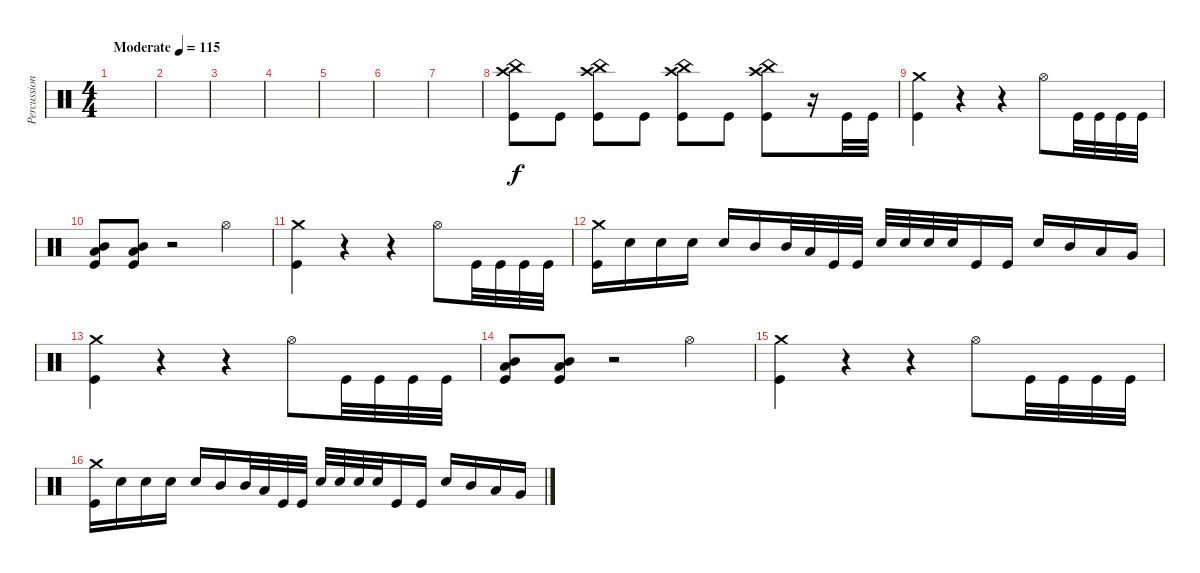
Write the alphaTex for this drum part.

\track ("Percussion" "Percussion") {instrument percussion}
\staff {score}
\articulation defaults
\ts (4 4)
\tempo (115 "Moderate")
\clef neutral
\ks c
|
|
|
|
|
|
|
("Crash high (hit)" "China (hit)" "Kick (hit)").8 "Kick (hit)".8 ("Crash high (hit)" "China (hit)" "Kick (hit)").8 "Kick (hit)".8 ("Crash high (hit)" "China (hit)" "Kick (hit)").8 "Kick (hit)".8 ("Crash high (hit)" "China (hit)" "Kick (hit)").8 r.16 "Kick (hit)".32 "Kick (hit)".32 |
("Crash medium (hit)" "Kick (hit)").4 r.4 r.4 "Hi-Hat (open)".8 "Kick (hit)".32 "Kick (hit)".32 "Kick (hit)".32 "Kick (hit)".32 |
("Low Tom (hit)" "Mid Tom (hit)" "Kick (hit)").8 ("Low Tom (hit)" "Mid Tom (hit)" "Kick (hit)").8 r.2 "Hi-Hat (open)".4 |
("Crash medium (hit)" "Kick (hit)").4 r.4 r.4 "Hi-Hat (open)".8 "Kick (hit)".32 "Kick (hit)".32 "Kick (hit)".32 "Kick (hit)".32 |
("Crash medium (hit)" "Kick (hit)").16 "Electric Snare (hit)".16 "Electric Snare (hit)".16 "Electric Snare (hit)".16 "Electric Snare (hit)".16 "Mid Tom (hit)".16 "Mid Tom (hit)".32 "Low Tom (hit)".32 "Kick (hit)".32 "Kick (hit)".32 "Electric Snare (hit)".32 "Electric Snare (hit)".32 "Electric Snare (hit)".32 "Electric Snare (hit)".32 "Kick (hit)".16 "Kick (hit)".16 "Electric Snare (hit)".16 "Mid Tom (hit)".16 "Low Tom (hit)".16 "Very Low Tom (hit)".16 |
("Crash medium (hit)" "Kick (hit)").4 r.4 r.4 "Hi-Hat (open)".8 "Kick (hit)".32 "Kick (hit)".32 "Kick (hit)".32 "Kick (hit)".32 |
("Low Tom (hit)" "Mid Tom (hit)" "Kick (hit)").8 ("Low Tom (hit)" "Mid Tom (hit)" "Kick (hit)").8 r.2 "Hi-Hat (open)".4 |
("Crash medium (hit)" "Kick (hit)").4 r.4 r.4 "Hi-Hat (open)".8 "Kick (hit)".32 "Kick (hit)".32 "Kick (hit)".32 "Kick (hit)".32 |
("Crash medium (hit)" "Kick (hit)").16 "Electric Snare (hit)".16 "Electric Snare (hit)".16 "Electric Snare (hit)".16 "Electric Snare (hit)".16 "Mid Tom (hit)".16 "Mid Tom (hit)".32 "Low Tom (hit)".32 "Kick (hit)".32 "Kick (hit)".32 "Electric Snare (hit)".32 "Electric Snare (hit)".32 "Electric Snare (hit)".32 "Electric Snare (hit)".32 "Kick (hit)".16 "Kick (hit)".16 "Electric Snare (hit)".16 "Mid Tom (hit)".16 "Low Tom (hit)".16 "Very Low Tom (hit)".16
